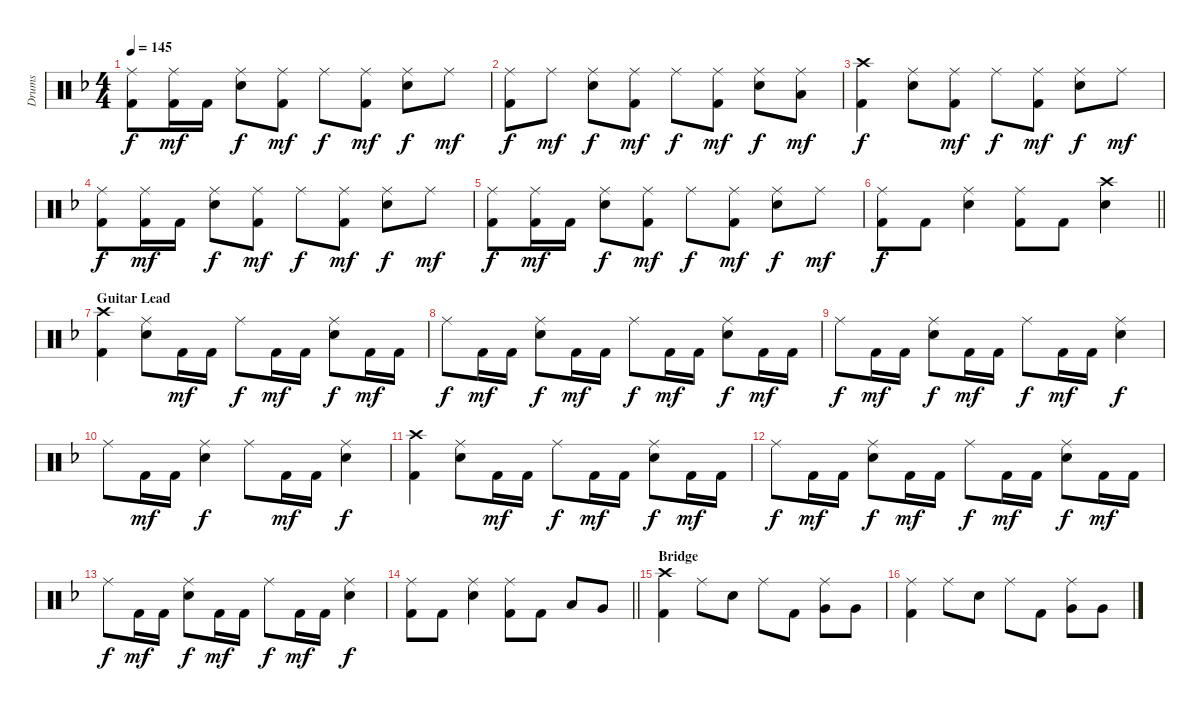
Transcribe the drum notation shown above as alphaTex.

\track ("Drums" "Drums") {instrument percussion}
\staff {score}
\articulation defaults
\ts (4 4)
\tempo 145
\clef neutral
\ks f
("Ride (middle)" "Kick (hit) 2").8{dy f} ("Ride (middle)" "Kick (hit) 2").16{dy mf} "Kick (hit) 2".16 ("Ride (middle)" "Electric Snare (hit)").8{dy f} ("Ride (middle)" "Kick (hit) 2").8{dy mf} "Ride (middle)".8{dy f} ("Ride (middle)" "Kick (hit) 2").8{dy mf} ("Ride (middle)" "Electric Snare (hit)").8{dy f} "Ride (middle)".8{dy mf} |
("Ride (middle)" "Kick (hit) 2").8{dy f} "Ride (middle)".8{dy mf} ("Ride (middle)" "Electric Snare (hit)").8{dy f} ("Ride (middle)" "Kick (hit) 2").8{dy mf} "Ride (middle)".8{dy f} ("Ride (middle)" "Kick (hit) 2").8{dy mf} ("Ride (middle)" "Electric Snare (hit)").8{dy f} ("Ride (middle)" "Low Tom (hit)").8{dy mf} |
("Crash high (hit)" "Kick (hit) 2").4{dy f} ("Ride (middle)" "Electric Snare (hit)").8 ("Ride (middle)" "Kick (hit) 2").8{dy mf} "Ride (middle)".8{dy f} ("Ride (middle)" "Kick (hit) 2").8{dy mf} ("Ride (middle)" "Electric Snare (hit)").8{dy f} "Ride (middle)".8{dy mf} |
("Ride (middle)" "Kick (hit) 2").8{dy f} ("Ride (middle)" "Kick (hit) 2").16{dy mf} "Kick (hit) 2".16 ("Ride (middle)" "Electric Snare (hit)").8{dy f} ("Ride (middle)" "Kick (hit) 2").8{dy mf} "Ride (middle)".8{dy f} ("Ride (middle)" "Kick (hit) 2").8{dy mf} ("Ride (middle)" "Electric Snare (hit)").8{dy f} "Ride (middle)".8{dy mf} |
("Ride (middle)" "Kick (hit) 2").8{dy f} ("Ride (middle)" "Kick (hit) 2").16{dy mf} "Kick (hit) 2".16 ("Ride (middle)" "Electric Snare (hit)").8{dy f} ("Ride (middle)" "Kick (hit) 2").8{dy mf} "Ride (middle)".8{dy f} ("Ride (middle)" "Kick (hit) 2").8{dy mf} ("Ride (middle)" "Electric Snare (hit)").8{dy f} "Ride (middle)".8{dy mf} |
\barLineRight lightlight
("Ride (middle)" "Kick (hit) 2").8{dy f} "Kick (hit) 2".8 ("Ride (middle)" "Electric Snare (hit)").4 ("Ride (middle)" "Kick (hit) 2").8 "Kick (hit) 2".8 ("Crash high (hit)" "Electric Snare (hit)").4 |
\section ("" "Guitar Lead")
("Crash high (hit)" "Kick (hit) 2").4 ("Ride (middle)" "Electric Snare (hit)").8 "Kick (hit) 2".16{dy mf} "Kick (hit) 2".16 "Ride (middle)".8{dy f} "Kick (hit) 2".16{dy mf} "Kick (hit) 2".16 ("Ride (middle)" "Electric Snare (hit)").8{dy f} "Kick (hit) 2".16{dy mf} "Kick (hit) 2".16 |
"Ride (middle)".8{dy f} "Kick (hit) 2".16{dy mf} "Kick (hit) 2".16 ("Ride (middle)" "Electric Snare (hit)").8{dy f} "Kick (hit) 2".16{dy mf} "Kick (hit) 2".16 "Ride (middle)".8{dy f} "Kick (hit) 2".16{dy mf} "Kick (hit) 2".16 ("Ride (middle)" "Electric Snare (hit)").8{dy f} "Kick (hit) 2".16{dy mf} "Kick (hit) 2".16 |
"Ride (middle)".8{dy f} "Kick (hit) 2".16{dy mf} "Kick (hit) 2".16 ("Ride (middle)" "Electric Snare (hit)").8{dy f} "Kick (hit) 2".16{dy mf} "Kick (hit) 2".16 "Ride (middle)".8{dy f} "Kick (hit) 2".16{dy mf} "Kick (hit) 2".16 ("Ride (middle)" "Electric Snare (hit)").4{dy f} |
"Ride (middle)".8 "Kick (hit) 2".16{dy mf} "Kick (hit) 2".16 ("Ride (middle)" "Electric Snare (hit)").4{dy f} "Ride (middle)".8 "Kick (hit) 2".16{dy mf} "Kick (hit) 2".16 ("Ride (middle)" "Electric Snare (hit)").4{dy f} |
("Crash high (hit)" "Kick (hit) 2").4 ("Ride (middle)" "Electric Snare (hit)").8 "Kick (hit) 2".16{dy mf} "Kick (hit) 2".16 "Ride (middle)".8{dy f} "Kick (hit) 2".16{dy mf} "Kick (hit) 2".16 ("Ride (middle)" "Electric Snare (hit)").8{dy f} "Kick (hit) 2".16{dy mf} "Kick (hit) 2".16 |
"Ride (middle)".8{dy f} "Kick (hit) 2".16{dy mf} "Kick (hit) 2".16 ("Ride (middle)" "Electric Snare (hit)").8{dy f} "Kick (hit) 2".16{dy mf} "Kick (hit) 2".16 "Ride (middle)".8{dy f} "Kick (hit) 2".16{dy mf} "Kick (hit) 2".16 ("Ride (middle)" "Electric Snare (hit)").8{dy f} "Kick (hit) 2".16{dy mf} "Kick (hit) 2".16 |
"Ride (middle)".8{dy f} "Kick (hit) 2".16{dy mf} "Kick (hit) 2".16 ("Ride (middle)" "Electric Snare (hit)").8{dy f} "Kick (hit) 2".16{dy mf} "Kick (hit) 2".16 "Ride (middle)".8{dy f} "Kick (hit) 2".16{dy mf} "Kick (hit) 2".16 ("Ride (middle)" "Electric Snare (hit)").4{dy f} |
\barLineRight lightlight
("Ride (middle)" "Kick (hit) 2").8 "Kick (hit) 2".8 ("Ride (middle)" "Electric Snare (hit)").4 ("Ride (middle)" "Kick (hit) 2").8 "Kick (hit) 2".8 "Low Tom (hit)".8 "Very Low Tom (hit)".8 |
\section ("" "Bridge ")
("Crash high (hit)" "Kick (hit) 2").4 "Ride (middle)".8 "Electric Snare (hit)".8 "Ride (middle)".8 "Kick (hit) 2".8 ("Ride (middle)" "Very Low Tom (hit)").8 "Very Low Tom (hit)".8 |
("Ride (middle)" "Kick (hit) 2").4 "Ride (middle)".8 "Electric Snare (hit)".8 "Ride (middle)".8 "Kick (hit) 2".8 ("Ride (middle)" "Very Low Tom (hit)").8 "Very Low Tom (hit)".8
